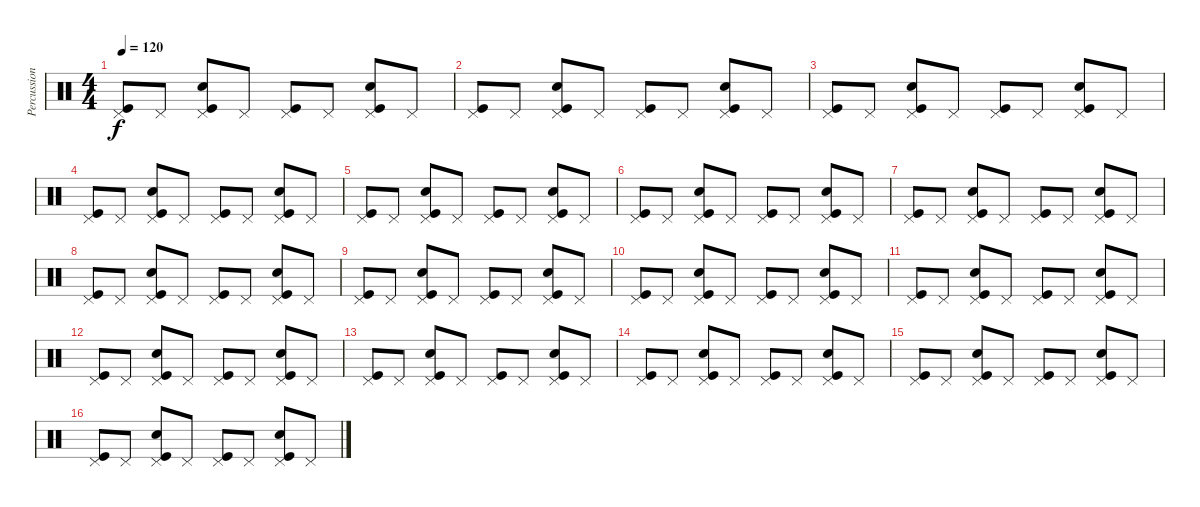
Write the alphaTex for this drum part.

\track ("Percussion" "Percussion") {instrument percussion}
\staff {score}
\articulation defaults
\ts (4 4)
\tempo 120
\clef neutral
\ks c
("Pedal Hi-Hat (hit)" "Kick (hit)").8{dy f} "Pedal Hi-Hat (hit)".8 ("Pedal Hi-Hat (hit)" "Electric Snare (hit)" "Kick (hit)").8 "Pedal Hi-Hat (hit)".8 ("Pedal Hi-Hat (hit)" "Kick (hit)").8 "Pedal Hi-Hat (hit)".8 ("Pedal Hi-Hat (hit)" "Electric Snare (hit)" "Kick (hit)").8 "Pedal Hi-Hat (hit)".8 |
("Pedal Hi-Hat (hit)" "Kick (hit)").8 "Pedal Hi-Hat (hit)".8 ("Pedal Hi-Hat (hit)" "Electric Snare (hit)" "Kick (hit)").8 "Pedal Hi-Hat (hit)".8 ("Pedal Hi-Hat (hit)" "Kick (hit)").8 "Pedal Hi-Hat (hit)".8 ("Pedal Hi-Hat (hit)" "Electric Snare (hit)" "Kick (hit)").8 "Pedal Hi-Hat (hit)".8 |
("Pedal Hi-Hat (hit)" "Kick (hit)").8 "Pedal Hi-Hat (hit)".8 ("Pedal Hi-Hat (hit)" "Electric Snare (hit)" "Kick (hit)").8 "Pedal Hi-Hat (hit)".8 ("Pedal Hi-Hat (hit)" "Kick (hit)").8 "Pedal Hi-Hat (hit)".8 ("Pedal Hi-Hat (hit)" "Electric Snare (hit)" "Kick (hit)").8 "Pedal Hi-Hat (hit)".8 |
("Pedal Hi-Hat (hit)" "Kick (hit)").8 "Pedal Hi-Hat (hit)".8 ("Pedal Hi-Hat (hit)" "Electric Snare (hit)" "Kick (hit)").8 "Pedal Hi-Hat (hit)".8 ("Pedal Hi-Hat (hit)" "Kick (hit)").8 "Pedal Hi-Hat (hit)".8 ("Pedal Hi-Hat (hit)" "Electric Snare (hit)" "Kick (hit)").8 "Pedal Hi-Hat (hit)".8 |
("Pedal Hi-Hat (hit)" "Kick (hit)").8 "Pedal Hi-Hat (hit)".8 ("Pedal Hi-Hat (hit)" "Electric Snare (hit)" "Kick (hit)").8 "Pedal Hi-Hat (hit)".8 ("Pedal Hi-Hat (hit)" "Kick (hit)").8 "Pedal Hi-Hat (hit)".8 ("Pedal Hi-Hat (hit)" "Electric Snare (hit)" "Kick (hit)").8 "Pedal Hi-Hat (hit)".8 |
("Pedal Hi-Hat (hit)" "Kick (hit)").8 "Pedal Hi-Hat (hit)".8 ("Pedal Hi-Hat (hit)" "Electric Snare (hit)" "Kick (hit)").8 "Pedal Hi-Hat (hit)".8 ("Pedal Hi-Hat (hit)" "Kick (hit)").8 "Pedal Hi-Hat (hit)".8 ("Pedal Hi-Hat (hit)" "Electric Snare (hit)" "Kick (hit)").8 "Pedal Hi-Hat (hit)".8 |
("Pedal Hi-Hat (hit)" "Kick (hit)").8 "Pedal Hi-Hat (hit)".8 ("Pedal Hi-Hat (hit)" "Electric Snare (hit)" "Kick (hit)").8 "Pedal Hi-Hat (hit)".8 ("Pedal Hi-Hat (hit)" "Kick (hit)").8 "Pedal Hi-Hat (hit)".8 ("Pedal Hi-Hat (hit)" "Electric Snare (hit)" "Kick (hit)").8 "Pedal Hi-Hat (hit)".8 |
("Pedal Hi-Hat (hit)" "Kick (hit)").8 "Pedal Hi-Hat (hit)".8 ("Pedal Hi-Hat (hit)" "Electric Snare (hit)" "Kick (hit)").8 "Pedal Hi-Hat (hit)".8 ("Pedal Hi-Hat (hit)" "Kick (hit)").8 "Pedal Hi-Hat (hit)".8 ("Pedal Hi-Hat (hit)" "Electric Snare (hit)" "Kick (hit)").8 "Pedal Hi-Hat (hit)".8 |
("Pedal Hi-Hat (hit)" "Kick (hit)").8 "Pedal Hi-Hat (hit)".8 ("Pedal Hi-Hat (hit)" "Electric Snare (hit)" "Kick (hit)").8 "Pedal Hi-Hat (hit)".8 ("Pedal Hi-Hat (hit)" "Kick (hit)").8 "Pedal Hi-Hat (hit)".8 ("Pedal Hi-Hat (hit)" "Electric Snare (hit)" "Kick (hit)").8 "Pedal Hi-Hat (hit)".8 |
("Pedal Hi-Hat (hit)" "Kick (hit)").8 "Pedal Hi-Hat (hit)".8 ("Pedal Hi-Hat (hit)" "Electric Snare (hit)" "Kick (hit)").8 "Pedal Hi-Hat (hit)".8 ("Pedal Hi-Hat (hit)" "Kick (hit)").8 "Pedal Hi-Hat (hit)".8 ("Pedal Hi-Hat (hit)" "Electric Snare (hit)" "Kick (hit)").8 "Pedal Hi-Hat (hit)".8 |
("Pedal Hi-Hat (hit)" "Kick (hit)").8 "Pedal Hi-Hat (hit)".8 ("Pedal Hi-Hat (hit)" "Electric Snare (hit)" "Kick (hit)").8 "Pedal Hi-Hat (hit)".8 ("Pedal Hi-Hat (hit)" "Kick (hit)").8 "Pedal Hi-Hat (hit)".8 ("Pedal Hi-Hat (hit)" "Electric Snare (hit)" "Kick (hit)").8 "Pedal Hi-Hat (hit)".8 |
("Pedal Hi-Hat (hit)" "Kick (hit)").8 "Pedal Hi-Hat (hit)".8 ("Pedal Hi-Hat (hit)" "Electric Snare (hit)" "Kick (hit)").8 "Pedal Hi-Hat (hit)".8 ("Pedal Hi-Hat (hit)" "Kick (hit)").8 "Pedal Hi-Hat (hit)".8 ("Pedal Hi-Hat (hit)" "Electric Snare (hit)" "Kick (hit)").8 "Pedal Hi-Hat (hit)".8 |
("Pedal Hi-Hat (hit)" "Kick (hit)").8 "Pedal Hi-Hat (hit)".8 ("Pedal Hi-Hat (hit)" "Electric Snare (hit)" "Kick (hit)").8 "Pedal Hi-Hat (hit)".8 ("Pedal Hi-Hat (hit)" "Kick (hit)").8 "Pedal Hi-Hat (hit)".8 ("Pedal Hi-Hat (hit)" "Electric Snare (hit)" "Kick (hit)").8 "Pedal Hi-Hat (hit)".8 |
("Pedal Hi-Hat (hit)" "Kick (hit)").8 "Pedal Hi-Hat (hit)".8 ("Pedal Hi-Hat (hit)" "Electric Snare (hit)" "Kick (hit)").8 "Pedal Hi-Hat (hit)".8 ("Pedal Hi-Hat (hit)" "Kick (hit)").8 "Pedal Hi-Hat (hit)".8 ("Pedal Hi-Hat (hit)" "Electric Snare (hit)" "Kick (hit)").8 "Pedal Hi-Hat (hit)".8 |
("Pedal Hi-Hat (hit)" "Kick (hit)").8 "Pedal Hi-Hat (hit)".8 ("Pedal Hi-Hat (hit)" "Electric Snare (hit)" "Kick (hit)").8 "Pedal Hi-Hat (hit)".8 ("Pedal Hi-Hat (hit)" "Kick (hit)").8 "Pedal Hi-Hat (hit)".8 ("Pedal Hi-Hat (hit)" "Electric Snare (hit)" "Kick (hit)").8 "Pedal Hi-Hat (hit)".8 |
("Pedal Hi-Hat (hit)" "Kick (hit)").8 "Pedal Hi-Hat (hit)".8 ("Pedal Hi-Hat (hit)" "Electric Snare (hit)" "Kick (hit)").8 "Pedal Hi-Hat (hit)".8 ("Pedal Hi-Hat (hit)" "Kick (hit)").8 "Pedal Hi-Hat (hit)".8 ("Pedal Hi-Hat (hit)" "Electric Snare (hit)" "Kick (hit)").8 "Pedal Hi-Hat (hit)".8
